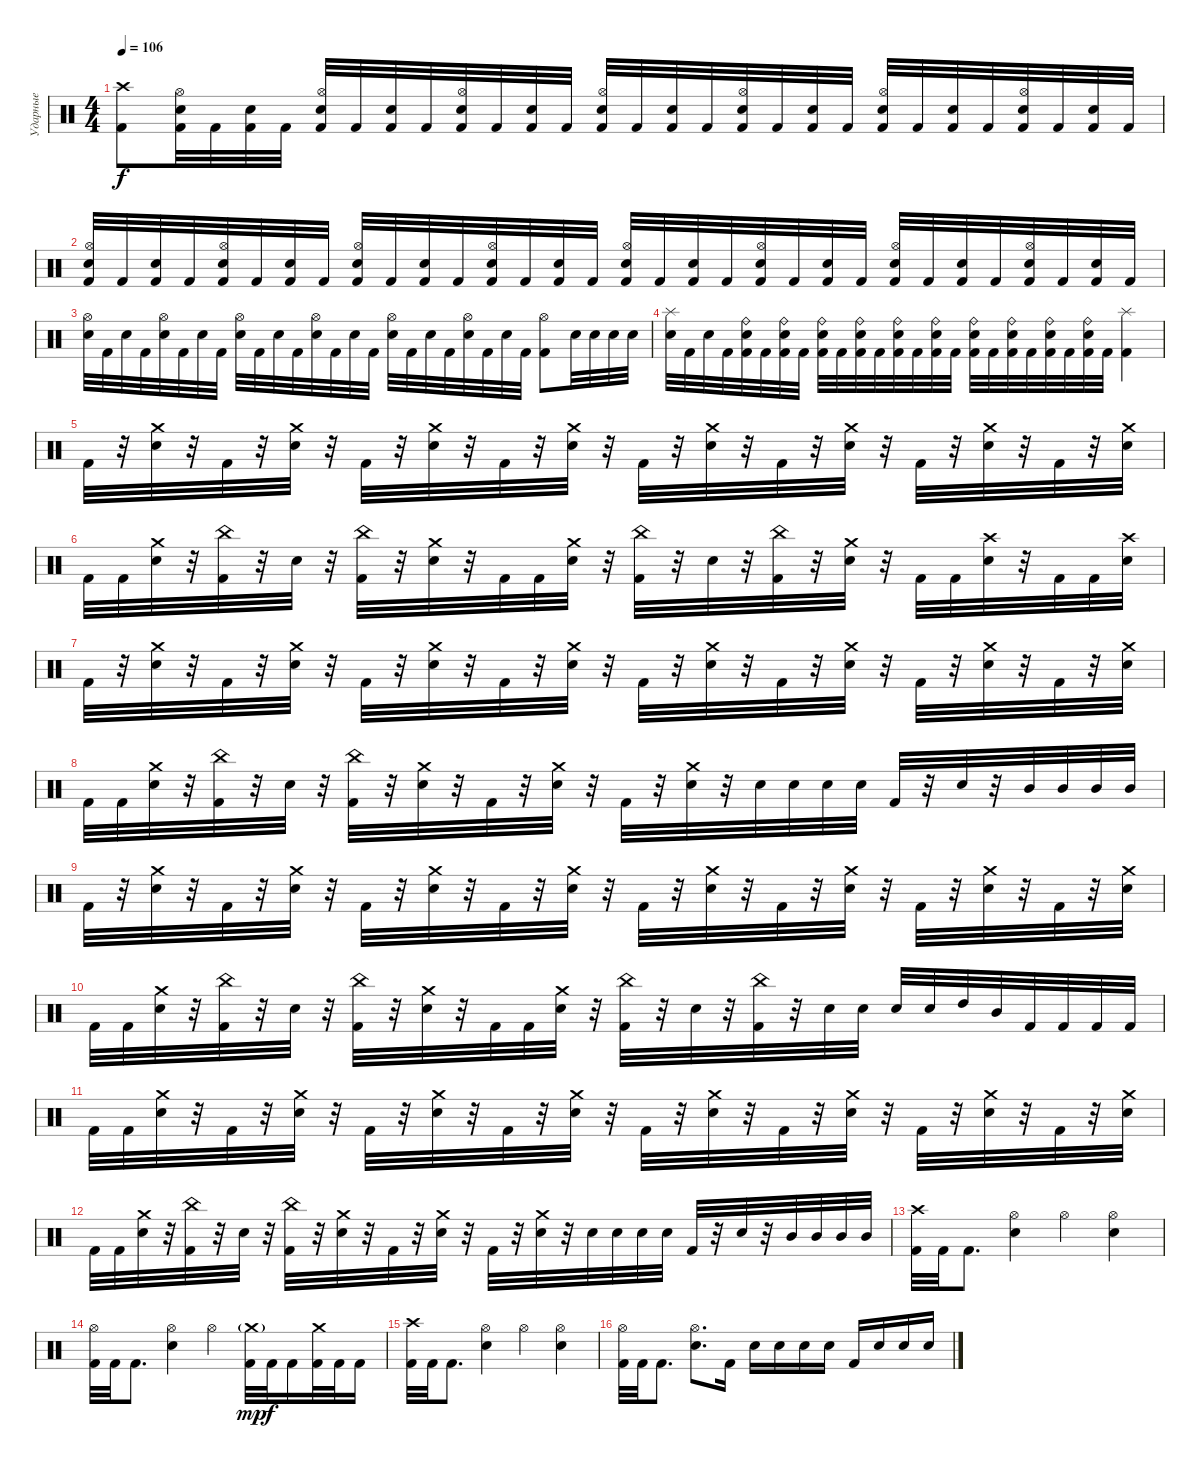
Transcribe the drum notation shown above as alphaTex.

\track ("Ударные" "Ударные") {instrument percussion}
\staff {score}
\articulation defaults
\ts (4 4)
\tempo 106
\clef neutral
\ks c
("Crash high (hit)" "Kick (hit) 2").8{dy f} ("Hi-Hat (open)" "Electric Snare (hit)" "Kick (hit) 2").32 "Kick (hit) 2".32 ("Electric Snare (hit)" "Kick (hit) 2").32 "Kick (hit) 2".32 ("Hi-Hat (open)" "Electric Snare (hit)" "Kick (hit) 2").32 "Kick (hit) 2".32 ("Electric Snare (hit)" "Kick (hit) 2").32 "Kick (hit) 2".32 ("Hi-Hat (open)" "Electric Snare (hit)" "Kick (hit) 2").32 "Kick (hit) 2".32 ("Electric Snare (hit)" "Kick (hit) 2").32 "Kick (hit) 2".32 ("Hi-Hat (open)" "Electric Snare (hit)" "Kick (hit) 2").32 "Kick (hit) 2".32 ("Electric Snare (hit)" "Kick (hit) 2").32 "Kick (hit) 2".32 ("Hi-Hat (open)" "Electric Snare (hit)" "Kick (hit) 2").32 "Kick (hit) 2".32 ("Electric Snare (hit)" "Kick (hit) 2").32 "Kick (hit) 2".32 ("Hi-Hat (open)" "Electric Snare (hit)" "Kick (hit) 2").32 "Kick (hit) 2".32 ("Electric Snare (hit)" "Kick (hit) 2").32 "Kick (hit) 2".32 ("Hi-Hat (open)" "Electric Snare (hit)" "Kick (hit) 2").32 "Kick (hit) 2".32 ("Electric Snare (hit)" "Kick (hit) 2").32 "Kick (hit) 2".32 |
("Hi-Hat (open)" "Electric Snare (hit)" "Kick (hit) 2").32 "Kick (hit) 2".32 ("Electric Snare (hit)" "Kick (hit) 2").32 "Kick (hit) 2".32 ("Hi-Hat (open)" "Electric Snare (hit)" "Kick (hit) 2").32 "Kick (hit) 2".32 ("Electric Snare (hit)" "Kick (hit) 2").32 "Kick (hit) 2".32 ("Hi-Hat (open)" "Electric Snare (hit)" "Kick (hit) 2").32 "Kick (hit) 2".32 ("Electric Snare (hit)" "Kick (hit) 2").32 "Kick (hit) 2".32 ("Hi-Hat (open)" "Electric Snare (hit)" "Kick (hit) 2").32 "Kick (hit) 2".32 ("Electric Snare (hit)" "Kick (hit) 2").32 "Kick (hit) 2".32 ("Hi-Hat (open)" "Electric Snare (hit)" "Kick (hit) 2").32 "Kick (hit) 2".32 ("Electric Snare (hit)" "Kick (hit) 2").32 "Kick (hit) 2".32 ("Hi-Hat (open)" "Electric Snare (hit)" "Kick (hit) 2").32 "Kick (hit) 2".32 ("Electric Snare (hit)" "Kick (hit) 2").32 "Kick (hit) 2".32 ("Hi-Hat (open)" "Electric Snare (hit)" "Kick (hit) 2").32 "Kick (hit) 2".32 ("Electric Snare (hit)" "Kick (hit) 2").32 "Kick (hit) 2".32 ("Hi-Hat (open)" "Electric Snare (hit)" "Kick (hit) 2").32 "Kick (hit) 2".32 ("Electric Snare (hit)" "Kick (hit) 2").32 "Kick (hit) 2".32 |
("Hi-Hat (open)" "Electric Snare (hit)").32 "Kick (hit) 2".32 "Electric Snare (hit)".32 "Kick (hit) 2".32 ("Hi-Hat (open)" "Electric Snare (hit)").32 "Kick (hit) 2".32 "Electric Snare (hit)".32 "Kick (hit) 2".32 ("Hi-Hat (open)" "Electric Snare (hit)").32 "Kick (hit) 2".32 "Electric Snare (hit)".32 "Kick (hit) 2".32 ("Hi-Hat (open)" "Electric Snare (hit)").32 "Kick (hit) 2".32 "Electric Snare (hit)".32 "Kick (hit) 2".32 ("Hi-Hat (open)" "Electric Snare (hit)").32 "Kick (hit) 2".32 "Electric Snare (hit)".32 "Kick (hit) 2".32 ("Hi-Hat (open)" "Electric Snare (hit)").32 "Kick (hit) 2".32 "Electric Snare (hit)".32 "Kick (hit) 2".32 ("Hi-Hat (open)" "Kick (hit) 2").8 "Electric Snare (hit)".32 "Electric Snare (hit)".32 "Electric Snare (hit)".32 "Electric Snare (hit)".32 |
("Splash (hit)" "Electric Snare (hit)").32 "Kick (hit) 2".32 "Electric Snare (hit)".32 "Kick (hit) 2".32 ("Ride (bell)" "Electric Snare (hit)" "Kick (hit) 2").32 "Kick (hit) 2".32 ("Ride (bell)" "Electric Snare (hit)" "Kick (hit) 2").32 "Kick (hit) 2".32 ("Ride (bell)" "Electric Snare (hit)" "Kick (hit) 2").32 "Kick (hit) 2".32 ("Ride (bell)" "Electric Snare (hit)" "Kick (hit) 2").32 "Kick (hit) 2".32 ("Ride (bell)" "Electric Snare (hit)" "Kick (hit) 2").32 "Kick (hit) 2".32 ("Ride (bell)" "Electric Snare (hit)" "Kick (hit) 2").32 "Kick (hit) 2".32 ("Ride (bell)" "Electric Snare (hit)" "Kick (hit) 2").32 "Kick (hit) 2".32 ("Ride (bell)" "Electric Snare (hit)" "Kick (hit) 2").32 "Kick (hit) 2".32 ("Ride (bell)" "Electric Snare (hit)" "Kick (hit) 2").32 "Kick (hit) 2".32 ("Ride (bell)" "Electric Snare (hit)" "Kick (hit) 2").32 "Kick (hit) 2".32 ("Splash (hit)" "Kick (hit) 2").4 |
"Kick (hit) 2".32 r.32 ("Crash medium (hit)" "Electric Snare (hit)").32 r.32 "Kick (hit) 2".32 r.32 ("Crash medium (hit)" "Electric Snare (hit)").32 r.32 "Kick (hit) 2".32 r.32 ("Crash medium (hit)" "Electric Snare (hit)").32 r.32 "Kick (hit) 2".32 r.32 ("Crash medium (hit)" "Electric Snare (hit)").32 r.32 "Kick (hit) 2".32 r.32 ("Crash medium (hit)" "Electric Snare (hit)").32 r.32 "Kick (hit) 2".32 r.32 ("Crash medium (hit)" "Electric Snare (hit)").32 r.32 "Kick (hit) 2".32 r.32 ("Crash medium (hit)" "Electric Snare (hit)").32 r.32 "Kick (hit) 2".32 r.32 ("Crash medium (hit)" "Electric Snare (hit)").32 |
"Kick (hit) 2".32 "Kick (hit) 2".32 ("Crash medium (hit)" "Electric Snare (hit)").32 r.32 ("China (hit)" "Kick (hit) 2").32 r.32 "Electric Snare (hit)".32 r.32 ("China (hit)" "Kick (hit) 2").32 r.32 ("Crash medium (hit)" "Electric Snare (hit)").32 r.32 "Kick (hit) 2".32 "Kick (hit) 2".32 ("Crash medium (hit)" "Electric Snare (hit)").32 r.32 ("China (hit)" "Kick (hit) 2").32 r.32 "Electric Snare (hit)".32 r.32 ("China (hit)" "Kick (hit) 2").32 r.32 ("Crash medium (hit)" "Electric Snare (hit)").32 r.32 "Kick (hit) 2".32 "Kick (hit) 2".32 ("Crash high (hit)" "Electric Snare (hit)").32 r.32 "Kick (hit) 2".32 "Kick (hit) 2".32 ("Crash high (hit)" "Electric Snare (hit)").32 |
"Kick (hit) 2".32 r.32 ("Crash medium (hit)" "Electric Snare (hit)").32 r.32 "Kick (hit) 2".32 r.32 ("Crash medium (hit)" "Electric Snare (hit)").32 r.32 "Kick (hit) 2".32 r.32 ("Crash medium (hit)" "Electric Snare (hit)").32 r.32 "Kick (hit) 2".32 r.32 ("Crash medium (hit)" "Electric Snare (hit)").32 r.32 "Kick (hit) 2".32 r.32 ("Crash medium (hit)" "Electric Snare (hit)").32 r.32 "Kick (hit) 2".32 r.32 ("Crash medium (hit)" "Electric Snare (hit)").32 r.32 "Kick (hit) 2".32 r.32 ("Crash medium (hit)" "Electric Snare (hit)").32 r.32 "Kick (hit) 2".32 r.32 ("Crash medium (hit)" "Electric Snare (hit)").32 |
"Kick (hit) 2".32 "Kick (hit) 2".32 ("Crash medium (hit)" "Electric Snare (hit)").32 r.32 ("China (hit)" "Kick (hit) 2").32 r.32 "Electric Snare (hit)".32 r.32 ("China (hit)" "Kick (hit) 2").32 r.32 ("Crash medium (hit)" "Electric Snare (hit)").32 r.32 "Kick (hit) 2".32 r.32 ("Crash medium (hit)" "Electric Snare (hit)").32 r.32 "Kick (hit) 2".32 r.32 ("Crash medium (hit)" "Electric Snare (hit)").32 r.32 "Electric Snare (hit)".32 "Electric Snare (hit)".32 "Electric Snare (hit)".32 "Electric Snare (hit)".32 "Kick (hit) 2".32 r.32 "Electric Snare (hit)".32 r.32 "Mid Tom (hit)".32 "Mid Tom (hit)".32 "Mid Tom (hit)".32 "Mid Tom (hit)".32 |
"Kick (hit) 2".32 r.32 ("Crash medium (hit)" "Electric Snare (hit)").32 r.32 "Kick (hit) 2".32 r.32 ("Crash medium (hit)" "Electric Snare (hit)").32 r.32 "Kick (hit) 2".32 r.32 ("Crash medium (hit)" "Electric Snare (hit)").32 r.32 "Kick (hit) 2".32 r.32 ("Crash medium (hit)" "Electric Snare (hit)").32 r.32 "Kick (hit) 2".32 r.32 ("Crash medium (hit)" "Electric Snare (hit)").32 r.32 "Kick (hit) 2".32 r.32 ("Crash medium (hit)" "Electric Snare (hit)").32 r.32 "Kick (hit) 2".32 r.32 ("Crash medium (hit)" "Electric Snare (hit)").32 r.32 "Kick (hit) 2".32 r.32 ("Crash medium (hit)" "Electric Snare (hit)").32 |
"Kick (hit) 2".32 "Kick (hit) 2".32 ("Crash medium (hit)" "Electric Snare (hit)").32 r.32 ("China (hit)" "Kick (hit) 2").32 r.32 "Electric Snare (hit)".32 r.32 ("China (hit)" "Kick (hit) 2").32 r.32 ("Crash medium (hit)" "Electric Snare (hit)").32 r.32 "Kick (hit) 2".32 "Kick (hit) 2".32 ("Crash medium (hit)" "Electric Snare (hit)").32 r.32 ("China (hit)" "Kick (hit) 2").32 r.32 "Electric Snare (hit)".32 r.32 ("China (hit)" "Kick (hit) 2").32 r.32 "Electric Snare (hit)".32 "Electric Snare (hit)".32 "Electric Snare (hit)".32 "Electric Snare (hit)".32 "High Tom (hit)".32 "Mid Tom (hit)".32 "Kick (hit) 2".32 "Kick (hit) 2".32 "Kick (hit) 2".32 "Kick (hit) 2".32 |
"Kick (hit) 2".32 "Kick (hit) 2".32 ("Crash medium (hit)" "Electric Snare (hit)").32 r.32 "Kick (hit) 2".32 r.32 ("Crash medium (hit)" "Electric Snare (hit)").32 r.32 "Kick (hit) 2".32 r.32 ("Crash medium (hit)" "Electric Snare (hit)").32 r.32 "Kick (hit) 2".32 r.32 ("Crash medium (hit)" "Electric Snare (hit)").32 r.32 "Kick (hit) 2".32 r.32 ("Crash medium (hit)" "Electric Snare (hit)").32 r.32 "Kick (hit) 2".32 r.32 ("Crash medium (hit)" "Electric Snare (hit)").32 r.32 "Kick (hit) 2".32 r.32 ("Crash medium (hit)" "Electric Snare (hit)").32 r.32 "Kick (hit) 2".32 r.32 ("Crash medium (hit)" "Electric Snare (hit)").32 |
"Kick (hit) 2".32 "Kick (hit) 2".32 ("Crash medium (hit)" "Electric Snare (hit)").32 r.32 ("China (hit)" "Kick (hit) 2").32 r.32 "Electric Snare (hit)".32 r.32 ("China (hit)" "Kick (hit) 2").32 r.32 ("Crash medium (hit)" "Electric Snare (hit)").32 r.32 "Kick (hit) 2".32 r.32 ("Crash medium (hit)" "Electric Snare (hit)").32 r.32 "Kick (hit) 2".32 r.32 ("Crash medium (hit)" "Electric Snare (hit)").32 r.32 "Electric Snare (hit)".32 "Electric Snare (hit)".32 "Electric Snare (hit)".32 "Electric Snare (hit)".32 "Kick (hit) 2".32 r.32 "Electric Snare (hit)".32 r.32 "Mid Tom (hit)".32 "Mid Tom (hit)".32 "Mid Tom (hit)".32 "Mid Tom (hit)".32 |
("Crash high (hit)" "Kick (hit) 2").32 "Kick (hit) 2".32 "Kick (hit) 2".8{d} ("Hi-Hat (open)" "Electric Snare (hit)").4 "Hi-Hat (open)".4 ("Hi-Hat (open)" "Electric Snare (hit)").4 |
("Hi-Hat (open)" "Kick (hit) 2").32 "Kick (hit) 2".32 "Kick (hit) 2".8{d} ("Hi-Hat (open)" "Electric Snare (hit)").4 "Hi-Hat (open)".4 ("Crash medium (hit)"{g} "Kick (hit) 2").32{dy mp} "Kick (hit) 2".32{dy f} "Kick (hit) 2".16 ("Crash medium (hit)" "Kick (hit) 2").32 "Kick (hit) 2".32 "Kick (hit) 2".16 |
("Crash high (hit)" "Kick (hit) 2").32 "Kick (hit) 2".32 "Kick (hit) 2".8{d} ("Hi-Hat (open)" "Electric Snare (hit)").4 "Hi-Hat (open)".4 ("Hi-Hat (open)" "Electric Snare (hit)").4 |
("Hi-Hat (open)" "Kick (hit) 2").32 "Kick (hit) 2".32 "Kick (hit) 2".8{d} ("Hi-Hat (open)" "Electric Snare (hit)").8{d} "Kick (hit) 2".16 "Electric Snare (hit)".16 "Electric Snare (hit)".16 "Electric Snare (hit)".16 "Electric Snare (hit)".16 "Kick (hit) 2".16 "Electric Snare (hit)".16 "Electric Snare (hit)".16 "Electric Snare (hit)".16
